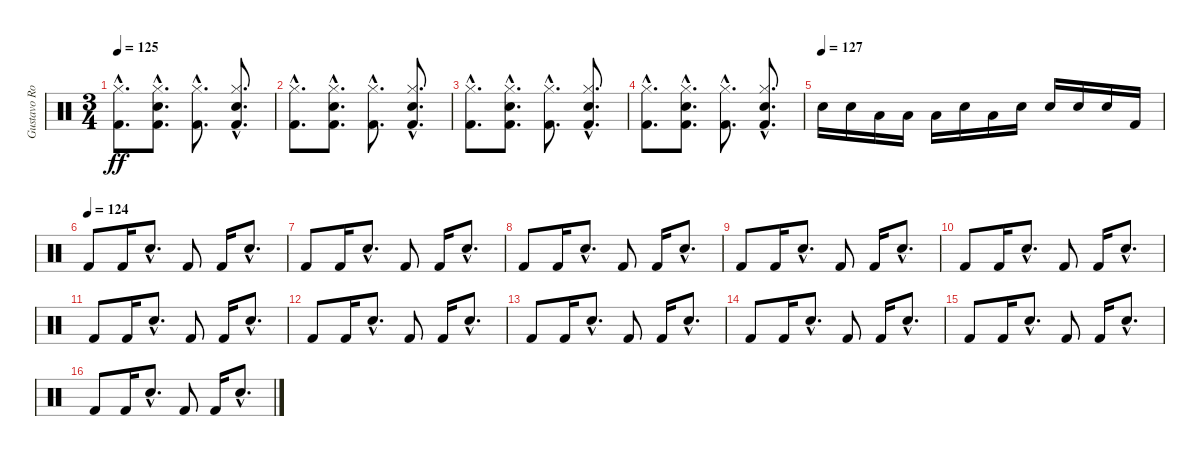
\track ("Gustavo Rowek 2" "Gustavo Ro") {instrument percussion}
\staff {score}
\articulation defaults
\ts (3 4)
\tempo 125
\clef neutral
\ks c
("Kick (hit) 2"{hac} "Hi-Hat (closed)"{hac}).8{d dy ff} ("Kick (hit) 2"{hac} "Snare (hit) 2"{hac} "Hi-Hat (closed)"{hac}).8{d} ("Kick (hit) 2"{hac} "Hi-Hat (closed)"{hac}).8{d} ("Kick (hit) 2"{hac} "Snare (hit) 2"{hac} "Hi-Hat (closed)"{hac}).8{d} |
("Kick (hit) 2"{hac} "Hi-Hat (closed)"{hac}).8{d} ("Kick (hit) 2"{hac} "Snare (hit) 2"{hac} "Hi-Hat (closed)"{hac}).8{d} ("Kick (hit) 2"{hac} "Hi-Hat (closed)"{hac}).8{d} ("Kick (hit) 2"{hac} "Snare (hit) 2"{hac} "Hi-Hat (closed)"{hac}).8{d} |
("Kick (hit) 2"{hac} "Hi-Hat (closed)"{hac}).8{d} ("Kick (hit) 2"{hac} "Snare (hit) 2"{hac} "Hi-Hat (closed)"{hac}).8{d} ("Kick (hit) 2"{hac} "Hi-Hat (closed)"{hac}).8{d} ("Kick (hit) 2"{hac} "Snare (hit) 2"{hac} "Hi-Hat (closed)"{hac}).8{d} |
("Kick (hit) 2"{hac} "Hi-Hat (closed)"{hac}).8{d} ("Kick (hit) 2"{hac} "Snare (hit) 2"{hac} "Hi-Hat (closed)"{hac}).8{d} ("Kick (hit) 2"{hac} "Hi-Hat (closed)"{hac}).8{d} ("Kick (hit) 2"{hac} "Snare (hit) 2"{hac} "Hi-Hat (closed)"{hac}).8{d} |
\tempo (127)
"Snare (hit) 2".16 "Electric Snare (hit)".16 "Low Floor Tom (hit)".16 "Low Floor Tom (hit)".16 "Low Floor Tom (hit)".16 "Electric Snare (hit)".16 "Low Floor Tom (hit)".16 "Electric Snare (hit)".16 "Snare (hit) 2".16 "Electric Snare (hit)".16 "Snare (hit) 2".16 "Kick (hit) 2".16 |
\tempo (124)
"Kick (hit) 2".8 "Kick (hit) 2".16 "Snare (hit) 2"{hac}.8{d} "Kick (hit) 2".8 "Kick (hit) 2".16 "Snare (hit) 2"{hac}.8{d} |
"Kick (hit) 2".8 "Kick (hit) 2".16 "Snare (hit) 2"{hac}.8{d} "Kick (hit) 2".8 "Kick (hit) 2".16 "Snare (hit) 2"{hac}.8{d} |
"Kick (hit) 2".8 "Kick (hit) 2".16 "Snare (hit) 2"{hac}.8{d} "Kick (hit) 2".8 "Kick (hit) 2".16 "Snare (hit) 2"{hac}.8{d} |
"Kick (hit) 2".8 "Kick (hit) 2".16 "Snare (hit) 2"{hac}.8{d} "Kick (hit) 2".8 "Kick (hit) 2".16 "Snare (hit) 2"{hac}.8{d} |
"Kick (hit) 2".8 "Kick (hit) 2".16 "Snare (hit) 2"{hac}.8{d} "Kick (hit) 2".8 "Kick (hit) 2".16 "Snare (hit) 2"{hac}.8{d} |
"Kick (hit) 2".8 "Kick (hit) 2".16 "Snare (hit) 2"{hac}.8{d} "Kick (hit) 2".8 "Kick (hit) 2".16 "Snare (hit) 2"{hac}.8{d} |
"Kick (hit) 2".8 "Kick (hit) 2".16 "Snare (hit) 2"{hac}.8{d} "Kick (hit) 2".8 "Kick (hit) 2".16 "Snare (hit) 2"{hac}.8{d} |
"Kick (hit) 2".8 "Kick (hit) 2".16 "Snare (hit) 2"{hac}.8{d} "Kick (hit) 2".8 "Kick (hit) 2".16 "Snare (hit) 2"{hac}.8{d} |
"Kick (hit) 2".8 "Kick (hit) 2".16 "Snare (hit) 2"{hac}.8{d} "Kick (hit) 2".8 "Kick (hit) 2".16 "Snare (hit) 2"{hac}.8{d} |
"Kick (hit) 2".8 "Kick (hit) 2".16 "Snare (hit) 2"{hac}.8{d} "Kick (hit) 2".8 "Kick (hit) 2".16 "Snare (hit) 2"{hac}.8{d} |
"Kick (hit) 2".8 "Kick (hit) 2".16 "Snare (hit) 2"{hac}.8{d} "Kick (hit) 2".8 "Kick (hit) 2".16 "Snare (hit) 2"{hac}.8{d}
